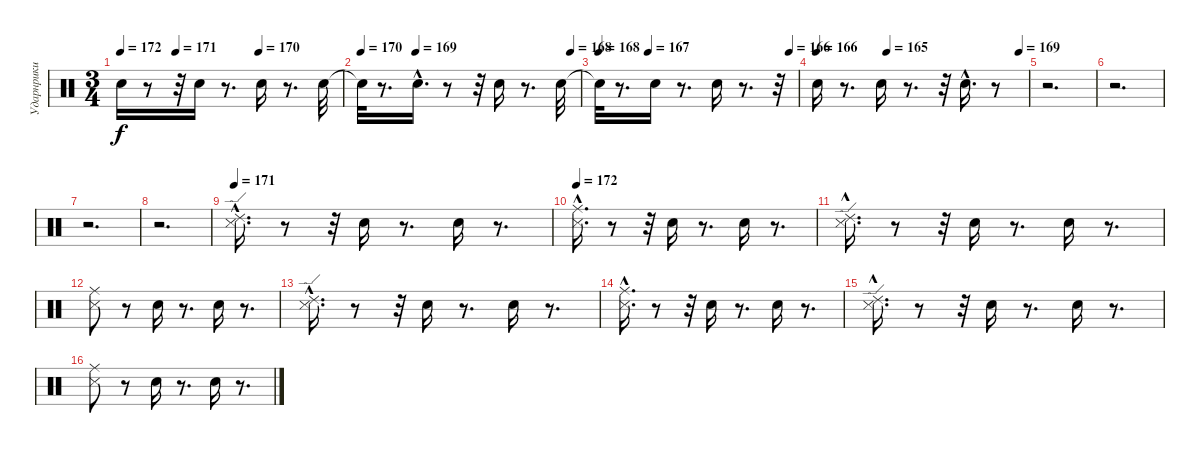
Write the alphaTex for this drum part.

\track ("Ударнрики" "Ударнрики") {instrument percussion}
\staff {score}
\articulation defaults
\ts (3 4)
\tempo 172
\tempo (171 0.25)
\tempo (170 0.625)
\clef neutral
\ks c "Electric Snare (hit)".16{dy f}
r.8 r.32 "Electric Snare (hit)".16 r.8{d} "Electric Snare (hit)".16 r.8{d} "Electric Snare (hit)".32 |
\tempo 170
\tempo (169 0.25)
\tempo (168 0.9583333333333334)
"Snare (hit)"{t}.32 r.8{d} "Electric Snare (hit)"{hac}.16{d} r.8 r.32 "Electric Snare (hit)".16 r.8{d} "Electric Snare (hit)".32 |
\tempo 168
\tempo (167 0.25)
\tempo (166 0.9583333333333334)
"Snare (hit)"{t}.32 r.8{d} "Electric Snare (hit)".16 r.8{d} "Electric Snare (hit)".16 r.8{d} r.32 |
\tempo 166
\tempo (165 0.3333333333333333)
\tempo (169 0.9583333333333334)
"Electric Snare (hit)".16 r.8{d} "Electric Snare (hit)".16 r.8{d} r.32 "Electric Snare (hit)"{hac}.16{d} r.8 |
r.2{d} |
r.2{d} |
r.2{d} |
r.2{d} |
\tempo 171
("Ride (edge) 2"{hac} "Metronome (hit)"{hac}).16{d} r.8 r.32 "Electric Snare (hit)".16 r.8{d} "Electric Snare (hit)".16 r.8{d} |
\tempo 172
("Ride (middle)" "Metronome (hit)"{hac}).16{d} r.8 r.32 "Electric Snare (hit)".16 r.8{d} "Electric Snare (hit)".16 r.8{d} |
("Ride (edge) 2" "Metronome (hit)"{hac}).16{d} r.8 r.32 "Electric Snare (hit)".16 r.8{d} "Electric Snare (hit)".16 r.8{d} |
("Ride (middle)" "Metronome (hit)").8 r.8 "Electric Snare (hit)".16 r.8{d} "Electric Snare (hit)".16 r.8{d} |
("Ride (edge) 2"{hac} "Metronome (hit)"{hac}).16{d} r.8 r.32 "Electric Snare (hit)".16 r.8{d} "Electric Snare (hit)".16 r.8{d} |
("Ride (middle)" "Metronome (hit)"{hac}).16{d} r.8 r.32 "Electric Snare (hit)".16 r.8{d} "Electric Snare (hit)".16 r.8{d} |
("Ride (edge) 2" "Metronome (hit)"{hac}).16{d} r.8 r.32 "Electric Snare (hit)".16 r.8{d} "Electric Snare (hit)".16 r.8{d} |
("Ride (middle)" "Metronome (hit)").8 r.8 "Electric Snare (hit)".16 r.8{d} "Electric Snare (hit)".16 r.8{d}
